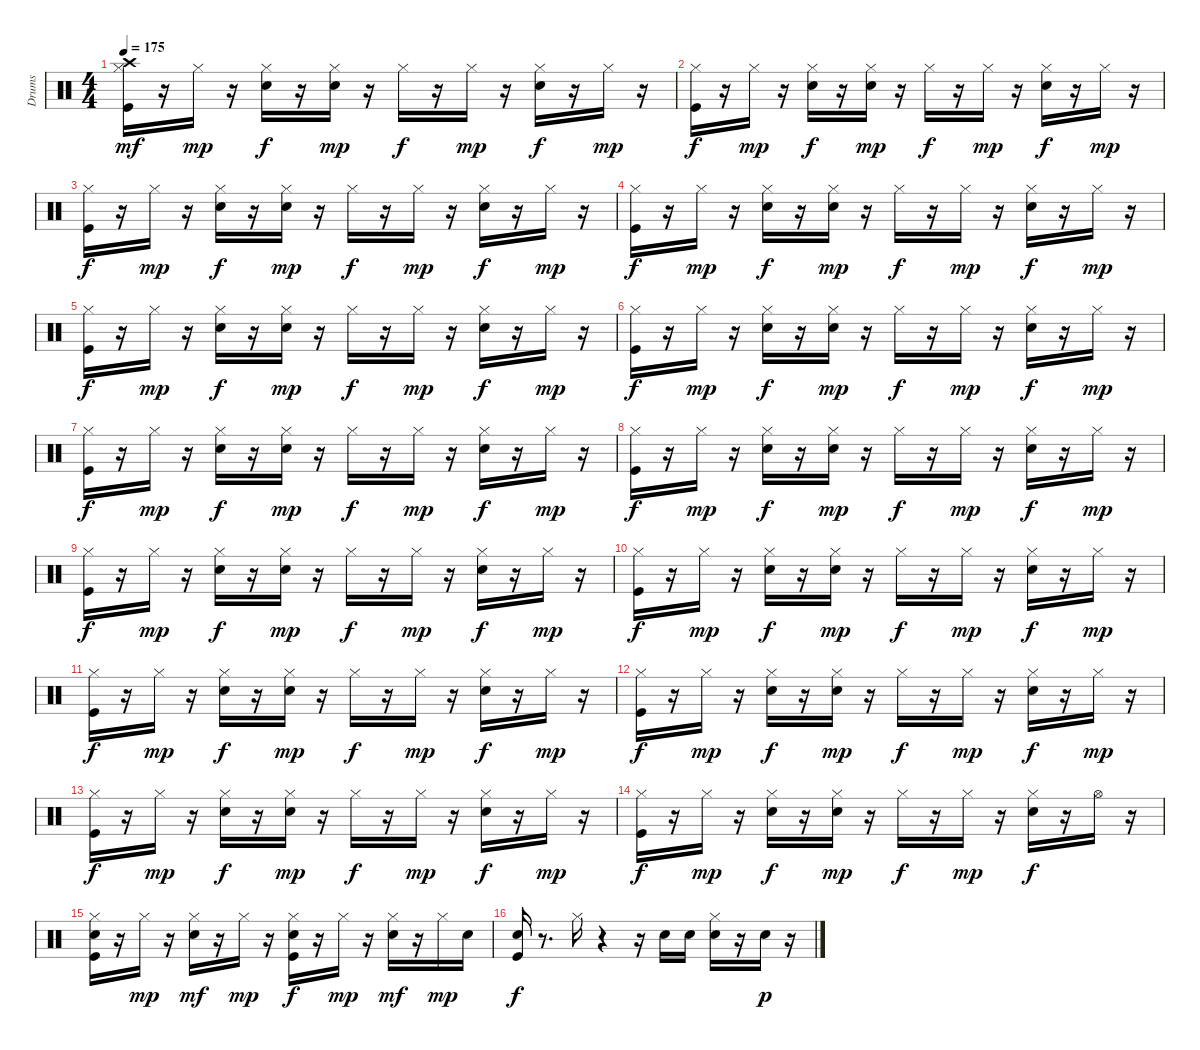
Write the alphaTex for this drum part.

\track ("Drums" "Drums") {instrument percussion}
\staff {score}
\articulation defaults
\ts (4 4)
\tempo 175
\clef neutral
\ks c
("Kick (hit)" "Hi-Hat (closed)" "Crash high (hit)").16{dy mf} r.16 "Hi-Hat (closed)".16{dy mp} r.16 ("Snare (hit) 2" "Hi-Hat (closed)").16{dy f} r.16 ("Snare (hit) 2" "Hi-Hat (closed)").16{dy mp} r.16 "Hi-Hat (closed)".16{dy f} r.16 "Hi-Hat (closed)".16{dy mp} r.16 ("Snare (hit) 2" "Hi-Hat (closed)").16{dy f} r.16 "Hi-Hat (closed)".16{dy mp} r.16 |
("Kick (hit)" "Hi-Hat (closed)").16{dy f} r.16 "Hi-Hat (closed)".16{dy mp} r.16 ("Snare (hit) 2" "Hi-Hat (closed)").16{dy f} r.16 ("Snare (hit) 2" "Hi-Hat (closed)").16{dy mp} r.16 "Hi-Hat (closed)".16{dy f} r.16 "Hi-Hat (closed)".16{dy mp} r.16 ("Snare (hit) 2" "Hi-Hat (closed)").16{dy f} r.16 "Hi-Hat (closed)".16{dy mp} r.16 |
("Kick (hit)" "Hi-Hat (closed)").16{dy f} r.16 "Hi-Hat (closed)".16{dy mp} r.16 ("Snare (hit) 2" "Hi-Hat (closed)").16{dy f} r.16 ("Snare (hit) 2" "Hi-Hat (closed)").16{dy mp} r.16 "Hi-Hat (closed)".16{dy f} r.16 "Hi-Hat (closed)".16{dy mp} r.16 ("Snare (hit) 2" "Hi-Hat (closed)").16{dy f} r.16 "Hi-Hat (closed)".16{dy mp} r.16 |
("Kick (hit)" "Hi-Hat (closed)").16{dy f} r.16 "Hi-Hat (closed)".16{dy mp} r.16 ("Snare (hit) 2" "Hi-Hat (closed)").16{dy f} r.16 ("Snare (hit) 2" "Hi-Hat (closed)").16{dy mp} r.16 "Hi-Hat (closed)".16{dy f} r.16 "Hi-Hat (closed)".16{dy mp} r.16 ("Snare (hit) 2" "Hi-Hat (closed)").16{dy f} r.16 "Hi-Hat (closed)".16{dy mp} r.16 |
("Kick (hit)" "Hi-Hat (closed)").16{dy f} r.16 "Hi-Hat (closed)".16{dy mp} r.16 ("Snare (hit) 2" "Hi-Hat (closed)").16{dy f} r.16 ("Snare (hit) 2" "Hi-Hat (closed)").16{dy mp} r.16 "Hi-Hat (closed)".16{dy f} r.16 "Hi-Hat (closed)".16{dy mp} r.16 ("Snare (hit) 2" "Hi-Hat (closed)").16{dy f} r.16 "Hi-Hat (closed)".16{dy mp} r.16 |
("Kick (hit)" "Hi-Hat (closed)").16{dy f} r.16 "Hi-Hat (closed)".16{dy mp} r.16 ("Snare (hit) 2" "Hi-Hat (closed)").16{dy f} r.16 ("Snare (hit) 2" "Hi-Hat (closed)").16{dy mp} r.16 "Hi-Hat (closed)".16{dy f} r.16 "Hi-Hat (closed)".16{dy mp} r.16 ("Snare (hit) 2" "Hi-Hat (closed)").16{dy f} r.16 "Hi-Hat (closed)".16{dy mp} r.16 |
("Kick (hit)" "Hi-Hat (closed)").16{dy f} r.16 "Hi-Hat (closed)".16{dy mp} r.16 ("Snare (hit) 2" "Hi-Hat (closed)").16{dy f} r.16 ("Snare (hit) 2" "Hi-Hat (closed)").16{dy mp} r.16 "Hi-Hat (closed)".16{dy f} r.16 "Hi-Hat (closed)".16{dy mp} r.16 ("Snare (hit) 2" "Hi-Hat (closed)").16{dy f} r.16 "Hi-Hat (closed)".16{dy mp} r.16 |
("Kick (hit)" "Hi-Hat (closed)").16{dy f} r.16 "Hi-Hat (closed)".16{dy mp} r.16 ("Snare (hit) 2" "Hi-Hat (closed)").16{dy f} r.16 ("Snare (hit) 2" "Hi-Hat (closed)").16{dy mp} r.16 "Hi-Hat (closed)".16{dy f} r.16 "Hi-Hat (closed)".16{dy mp} r.16 ("Snare (hit) 2" "Hi-Hat (closed)").16{dy f} r.16 "Hi-Hat (closed)".16{dy mp} r.16 |
("Kick (hit)" "Hi-Hat (closed)").16{dy f} r.16 "Hi-Hat (closed)".16{dy mp} r.16 ("Snare (hit) 2" "Hi-Hat (closed)").16{dy f} r.16 ("Snare (hit) 2" "Hi-Hat (closed)").16{dy mp} r.16 "Hi-Hat (closed)".16{dy f} r.16 "Hi-Hat (closed)".16{dy mp} r.16 ("Snare (hit) 2" "Hi-Hat (closed)").16{dy f} r.16 "Hi-Hat (closed)".16{dy mp} r.16 |
("Kick (hit)" "Hi-Hat (closed)").16{dy f} r.16 "Hi-Hat (closed)".16{dy mp} r.16 ("Snare (hit) 2" "Hi-Hat (closed)").16{dy f} r.16 ("Snare (hit) 2" "Hi-Hat (closed)").16{dy mp} r.16 "Hi-Hat (closed)".16{dy f} r.16 "Hi-Hat (closed)".16{dy mp} r.16 ("Snare (hit) 2" "Hi-Hat (closed)").16{dy f} r.16 "Hi-Hat (closed)".16{dy mp} r.16 |
("Kick (hit)" "Hi-Hat (closed)").16{dy f} r.16 "Hi-Hat (closed)".16{dy mp} r.16 ("Snare (hit) 2" "Hi-Hat (closed)").16{dy f} r.16 ("Snare (hit) 2" "Hi-Hat (closed)").16{dy mp} r.16 "Hi-Hat (closed)".16{dy f} r.16 "Hi-Hat (closed)".16{dy mp} r.16 ("Snare (hit) 2" "Hi-Hat (closed)").16{dy f} r.16 "Hi-Hat (closed)".16{dy mp} r.16 |
("Kick (hit)" "Hi-Hat (closed)").16{dy f} r.16 "Hi-Hat (closed)".16{dy mp} r.16 ("Snare (hit) 2" "Hi-Hat (closed)").16{dy f} r.16 ("Snare (hit) 2" "Hi-Hat (closed)").16{dy mp} r.16 "Hi-Hat (closed)".16{dy f} r.16 "Hi-Hat (closed)".16{dy mp} r.16 ("Snare (hit) 2" "Hi-Hat (closed)").16{dy f} r.16 "Hi-Hat (closed)".16{dy mp} r.16 |
("Kick (hit)" "Hi-Hat (closed)").16{dy f} r.16 "Hi-Hat (closed)".16{dy mp} r.16 ("Snare (hit) 2" "Hi-Hat (closed)").16{dy f} r.16 ("Snare (hit) 2" "Hi-Hat (closed)").16{dy mp} r.16 "Hi-Hat (closed)".16{dy f} r.16 "Hi-Hat (closed)".16{dy mp} r.16 ("Snare (hit) 2" "Hi-Hat (closed)").16{dy f} r.16 "Hi-Hat (closed)".16{dy mp} r.16 |
("Kick (hit)" "Hi-Hat (closed)").16{dy f} r.16 "Hi-Hat (closed)".16{dy mp} r.16 ("Snare (hit) 2" "Hi-Hat (closed)").16{dy f} r.16 ("Snare (hit) 2" "Hi-Hat (closed)").16{dy mp} r.16 "Hi-Hat (closed)".16{dy f} r.16 "Hi-Hat (closed)".16{dy mp} r.16 ("Snare (hit) 2" "Hi-Hat (closed)").16{dy f} r.16 "Hi-Hat (open)".16 r.16 |
("Kick (hit)" "Snare (hit) 2" "Hi-Hat (closed)").16 r.16 "Hi-Hat (closed)".16{dy mp} r.16 ("Snare (hit) 2" "Hi-Hat (closed)").16{dy mf} r.16 "Hi-Hat (closed)".16{dy mp} r.16 ("Kick (hit)" "Snare (hit) 2" "Hi-Hat (closed)").16{dy f} r.16 "Hi-Hat (closed)".16{dy mp} r.16 ("Snare (hit) 2" "Hi-Hat (closed)").16{dy mf} r.16 "Hi-Hat (closed)".16{dy mp} "Snare (hit) 2".16 |
("Kick (hit)" "Snare (hit) 2").16{dy f} r.8{d} "Hi-Hat (closed)".16 r.4 r.16 "Snare (hit) 2".16 "Snare (hit) 2".16 ("Snare (hit) 2" "Hi-Hat (closed)").16 r.16 "Snare (hit) 2".16{dy p} r.16
